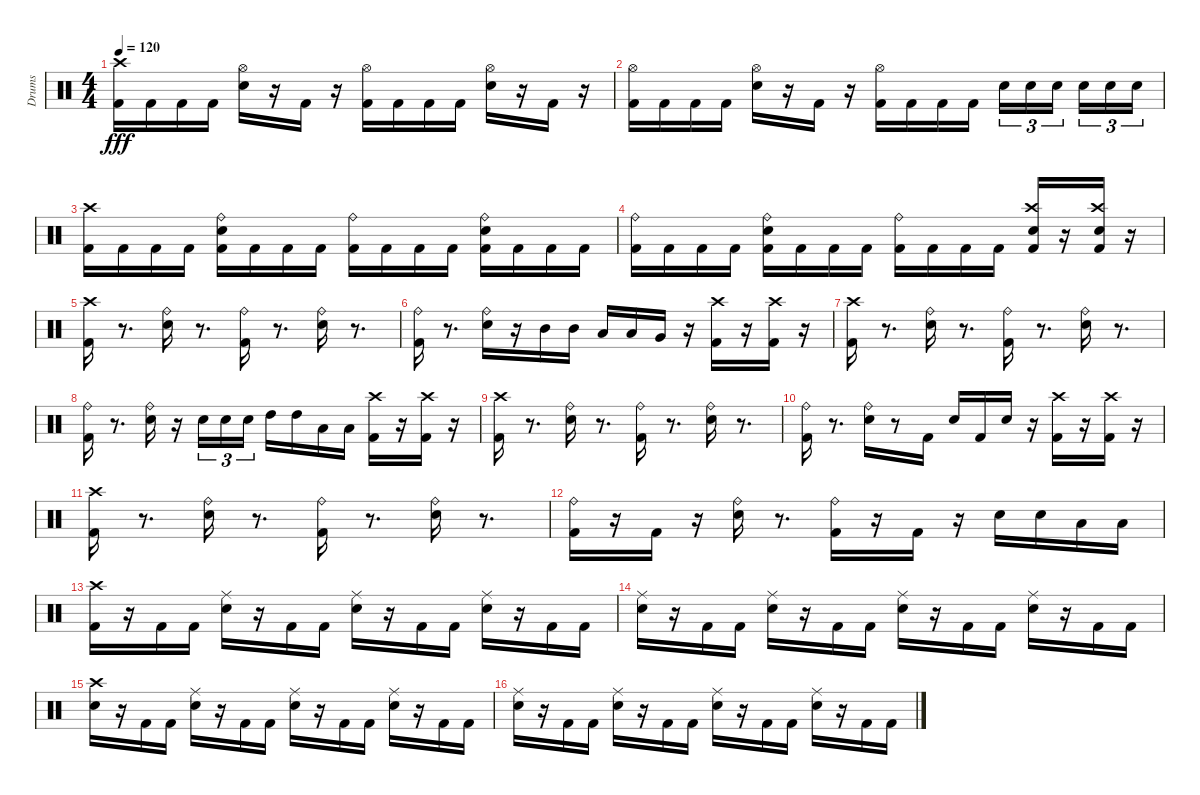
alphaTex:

\track ("Drums" "Drums") {instrument percussion}
\staff {score}
\articulation defaults
\ts (4 4)
\tempo 120
\clef neutral
\ks c
("Kick (hit) 2" "Crash high (hit)").16{dy fff} "Kick (hit) 2".16 "Kick (hit) 2".16 "Kick (hit) 2".16 ("Hi-Hat (open)" "Electric Snare (hit)").16 r.16 "Kick (hit) 2".16 r.16 ("Hi-Hat (open)" "Kick (hit) 2").16 "Kick (hit) 2".16 "Kick (hit) 2".16 "Kick (hit) 2".16 ("Hi-Hat (open)" "Electric Snare (hit)").16 r.16 "Kick (hit) 2".16 r.16 |
("Kick (hit) 2" "Hi-Hat (open)").16 "Kick (hit) 2".16 "Kick (hit) 2".16 "Kick (hit) 2".16 ("Electric Snare (hit)" "Hi-Hat (open)").16 r.16 "Kick (hit) 2".16 r.16 ("Kick (hit) 2" "Hi-Hat (open)").16 "Kick (hit) 2".16 "Kick (hit) 2".16 "Kick (hit) 2".16 "Electric Snare (hit)".16{tu (3 2)} "Electric Snare (hit)".16{tu (3 2)} "Electric Snare (hit)".16{tu (3 2) beam splitsecondary} "Electric Snare (hit)".16{tu (3 2)} "Electric Snare (hit)".16{tu (3 2)} "Electric Snare (hit)".16{tu (3 2)} |
("Crash high (hit)" "Kick (hit) 2").16 "Kick (hit) 2".16 "Kick (hit) 2".16 "Kick (hit) 2".16 ("Electric Snare (hit)" "Ride (bell)" "Kick (hit) 2").16 "Kick (hit) 2".16 "Kick (hit) 2".16 "Kick (hit) 2".16 ("Ride (bell)" "Kick (hit) 2").16 "Kick (hit) 2".16 "Kick (hit) 2".16 "Kick (hit) 2".16 ("Electric Snare (hit)" "Ride (bell)" "Kick (hit) 2").16 "Kick (hit) 2".16 "Kick (hit) 2".16 "Kick (hit) 2".16 |
("Ride (bell)" "Kick (hit) 2").16 "Kick (hit) 2".16 "Kick (hit) 2".16 "Kick (hit) 2".16 ("Ride (bell)" "Electric Snare (hit)" "Kick (hit) 2").16 "Kick (hit) 2".16 "Kick (hit) 2".16 "Kick (hit) 2".16 ("Ride (bell)" "Kick (hit) 2").16 "Kick (hit) 2".16 "Kick (hit) 2".16 "Kick (hit) 2".16 ("Crash high (hit)" "Electric Snare (hit)" "Kick (hit) 2").16 r.16 ("Crash high (hit)" "Electric Snare (hit)" "Kick (hit) 2").16 r.16 |
("Kick (hit) 2" "Crash high (hit)").16 r.8{d} ("Ride (bell)" "Electric Snare (hit)").16 r.8{d} ("Kick (hit) 2" "Ride (bell)").16 r.8{d} ("Ride (bell)" "Electric Snare (hit)").16 r.8{d} |
("Ride (bell)" "Kick (hit) 2").16 r.8{d} ("Electric Snare (hit)" "Ride (bell)").16 r.16 "Mid Tom (hit)".16 "Mid Tom (hit)".16 "Low Tom (hit)".16 "Low Tom (hit)".16 "Very Low Tom (hit)".16 r.16 ("Kick (hit) 2" "Crash high (hit)").16 r.16 ("Kick (hit) 2" "Crash high (hit)").16 r.16 |
("Crash high (hit)" "Kick (hit) 2").16 r.8{d} ("Electric Snare (hit)" "Ride (bell)").16 r.8{d} ("Ride (bell)" "Kick (hit) 2").16 r.8{d} ("Electric Snare (hit)" "Ride (bell)").16 r.8{d} |
("Kick (hit) 2" "Ride (bell)").16 r.8{d} ("Ride (bell)" "Electric Snare (hit)").16 r.16 "Electric Snare (hit)".16{tu (3 2)} "Electric Snare (hit)".16{tu (3 2)} "Electric Snare (hit)".16{tu (3 2)} "High Tom (hit)".16 "High Tom (hit)".16 "Low Tom (hit)".16 "Low Tom (hit)".16 ("Crash high (hit)" "Kick (hit) 2").16 r.16 ("Crash high (hit)" "Kick (hit) 2").16 r.16 |
("Kick (hit) 2" "Crash high (hit)").16 r.8{d} ("Ride (bell)" "Electric Snare (hit)").16 r.8{d} ("Kick (hit) 2" "Ride (bell)").16 r.8{d} ("Ride (bell)" "Electric Snare (hit)").16 r.8{d} |
("Ride (bell)" "Kick (hit) 2").16 r.8{d} ("Electric Snare (hit)" "Ride (bell)").16 r.8 "Kick (hit) 2".16 "Electric Snare (hit)".16 "Kick (hit) 2".16 "Electric Snare (hit)".16 r.16 ("Kick (hit) 2" "Crash high (hit)").16 r.16 ("Kick (hit) 2" "Crash high (hit)").16 r.16 |
("Kick (hit) 2" "Crash high (hit)").16 r.8{d} ("Ride (bell)" "Electric Snare (hit)").16 r.8{d} ("Kick (hit) 2" "Ride (bell)").16 r.8{d} ("Ride (bell)" "Electric Snare (hit)").16 r.8{d} |
("Ride (bell)" "Kick (hit) 2").16 r.16 "Kick (hit) 2".16 r.16 ("Ride (bell)" "Electric Snare (hit)").16 r.8{d} ("Kick (hit) 2" "Ride (bell)").16 r.16 "Kick (hit) 2".16 r.16 "Electric Snare (hit)".16 "Electric Snare (hit)".16 "Low Tom (hit)".16 "Low Tom (hit)".16 |
("Crash high (hit)" "Kick (hit) 2").16 r.16 "Kick (hit) 2".16 "Kick (hit) 2".16 ("Ride (middle)" "Electric Snare (hit)").16 r.16 "Kick (hit) 2".16 "Kick (hit) 2".16 ("Ride (middle)" "Electric Snare (hit)").16 r.16 "Kick (hit) 2".16 "Kick (hit) 2".16 ("Ride (middle)" "Electric Snare (hit)").16 r.16 "Kick (hit) 2".16 "Kick (hit) 2".16 |
("Electric Snare (hit)" "Ride (middle)").16 r.16 "Kick (hit) 2".16 "Kick (hit) 2".16 ("Electric Snare (hit)" "Ride (middle)").16 r.16 "Kick (hit) 2".16 "Kick (hit) 2".16 ("Electric Snare (hit)" "Ride (middle)").16 r.16 "Kick (hit) 2".16 "Kick (hit) 2".16 ("Electric Snare (hit)" "Ride (middle)").16 r.16 "Kick (hit) 2".16 "Kick (hit) 2".16 |
("Electric Snare (hit)" "Crash high (hit)").16 r.16 "Kick (hit) 2".16 "Kick (hit) 2".16 ("Electric Snare (hit)" "Ride (middle)").16 r.16 "Kick (hit) 2".16 "Kick (hit) 2".16 ("Electric Snare (hit)" "Ride (middle)").16 r.16 "Kick (hit) 2".16 "Kick (hit) 2".16 ("Electric Snare (hit)" "Ride (middle)").16 r.16 "Kick (hit) 2".16 "Kick (hit) 2".16 |
("Electric Snare (hit)" "Ride (middle)").16 r.16 "Kick (hit) 2".16 "Kick (hit) 2".16 ("Ride (middle)" "Electric Snare (hit)").16 r.16 "Kick (hit) 2".16 "Kick (hit) 2".16 ("Ride (middle)" "Electric Snare (hit)").16 r.16 "Kick (hit) 2".16 "Kick (hit) 2".16 ("Ride (middle)" "Electric Snare (hit)").16 r.16 "Kick (hit) 2".16 "Kick (hit) 2".16
